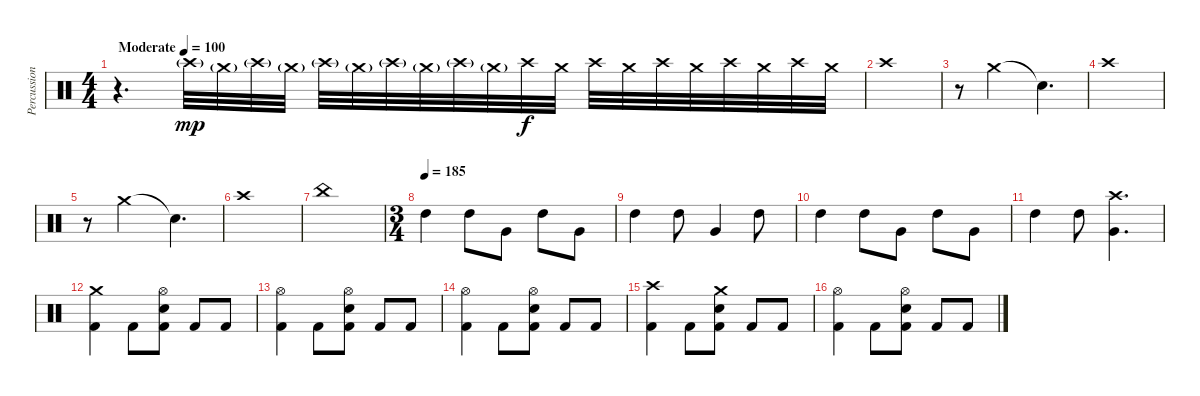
\track ("Percussion" "Percussion") {instrument percussion}
\staff {score}
\articulation defaults
\ts (4 4)
\tempo (100 "Moderate")
\clef neutral
\ks c
r.4{d dy mp} "Crash high (hit)"{g}.32 "Crash medium (hit)"{g}.32 "Crash high (hit)"{g}.32 "Crash medium (hit)"{g}.32 "Crash high (hit)"{g}.32 "Crash medium (hit)"{g}.32 "Crash high (hit)"{g}.32 "Crash medium (hit)"{g}.32 "Crash high (hit)"{g}.32 "Crash medium (hit)"{g}.32 "Crash high (hit)".32{dy f} "Crash medium (hit)".32 "Crash high (hit)".32 "Crash medium (hit)".32 "Crash high (hit)".32 "Crash medium (hit)".32 "Crash high (hit)".32 "Crash medium (hit)".32 "Crash high (hit)".32 "Crash medium (hit)".32 |
"Crash high (hit)".1 |
r.8 "Crash medium (hit)".2 "Snare (hit)"{t}.4{d} |
"Crash high (hit)".1 |
r.8 "Crash medium (hit)".2 "Snare (hit)"{t}.4{d} |
"Crash high (hit)".1 |
"China (hit)".1 |
\ts (3 4)
\tempo (185)
"High Tom (hit)".4 "High Tom (hit)".8 "Very Low Tom (hit)".8 "High Tom (hit)".8 "Very Low Tom (hit)".8 |
"High Tom (hit)".4 "High Tom (hit)".8 "Very Low Tom (hit)".4 "High Tom (hit)".8 |
"High Tom (hit)".4 "High Tom (hit)".8 "Very Low Tom (hit)".8 "High Tom (hit)".8 "Very Low Tom (hit)".8 |
"High Tom (hit)".4 "High Tom (hit)".8 ("Very Low Tom (hit)" "Crash high (hit)").4{d} |
("Crash medium (hit)" "Kick (hit) 2").4 "Kick (hit) 2".8 ("Hi-Hat (open)" "Snare (hit) 2" "Kick (hit) 2").8 "Kick (hit) 2".8 "Kick (hit) 2".8 |
("Hi-Hat (open)" "Kick (hit) 2").4 "Kick (hit) 2".8 ("Hi-Hat (open)" "Snare (hit) 2" "Kick (hit) 2").8 "Kick (hit) 2".8 "Kick (hit) 2".8 |
("Hi-Hat (open)" "Kick (hit) 2").4 "Kick (hit) 2".8 ("Hi-Hat (open)" "Snare (hit) 2" "Kick (hit) 2").8 "Kick (hit) 2".8 "Kick (hit) 2".8 |
("Crash high (hit)" "Kick (hit) 2").4 "Kick (hit) 2".8 ("Crash medium (hit)" "Snare (hit) 2" "Kick (hit) 2").8 "Kick (hit) 2".8 "Kick (hit) 2".8 |
("Hi-Hat (open)" "Kick (hit) 2").4 "Kick (hit) 2".8 ("Hi-Hat (open)" "Snare (hit) 2" "Kick (hit) 2").8 "Kick (hit) 2".8 "Kick (hit) 2".8
